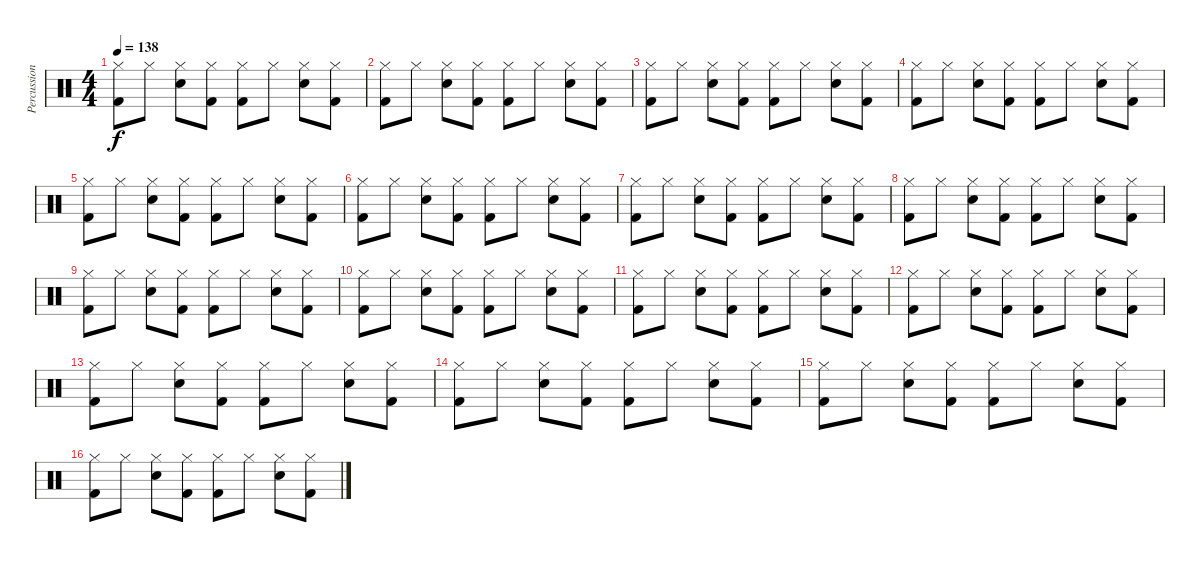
\track ("Percussion" "Percussion") {instrument percussion}
\staff {score}
\articulation defaults
\ts (4 4)
\tempo 138
\clef neutral
\ks c
("Hi-Hat (closed)" "Kick (hit) 2").8{dy f} "Hi-Hat (closed)".8 ("Hi-Hat (closed)" "Electric Snare (hit)").8 ("Hi-Hat (closed)" "Kick (hit) 2").8 ("Hi-Hat (closed)" "Kick (hit) 2").8 "Hi-Hat (closed)".8 ("Hi-Hat (closed)" "Electric Snare (hit)").8 ("Hi-Hat (closed)" "Kick (hit) 2").8 |
("Hi-Hat (closed)" "Kick (hit) 2").8 "Hi-Hat (closed)".8 ("Hi-Hat (closed)" "Electric Snare (hit)").8 ("Hi-Hat (closed)" "Kick (hit) 2").8 ("Hi-Hat (closed)" "Kick (hit) 2").8 "Hi-Hat (closed)".8 ("Hi-Hat (closed)" "Electric Snare (hit)").8 ("Hi-Hat (closed)" "Kick (hit) 2").8 |
("Hi-Hat (closed)" "Kick (hit) 2").8 "Hi-Hat (closed)".8 ("Hi-Hat (closed)" "Electric Snare (hit)").8 ("Hi-Hat (closed)" "Kick (hit) 2").8 ("Hi-Hat (closed)" "Kick (hit) 2").8 "Hi-Hat (closed)".8 ("Hi-Hat (closed)" "Electric Snare (hit)").8 ("Hi-Hat (closed)" "Kick (hit) 2").8 |
("Hi-Hat (closed)" "Kick (hit) 2").8 "Hi-Hat (closed)".8 ("Hi-Hat (closed)" "Electric Snare (hit)").8 ("Hi-Hat (closed)" "Kick (hit) 2").8 ("Hi-Hat (closed)" "Kick (hit) 2").8 "Hi-Hat (closed)".8 ("Hi-Hat (closed)" "Electric Snare (hit)").8 ("Hi-Hat (closed)" "Kick (hit) 2").8 |
("Hi-Hat (closed)" "Kick (hit) 2").8 "Hi-Hat (closed)".8 ("Hi-Hat (closed)" "Electric Snare (hit)").8 ("Hi-Hat (closed)" "Kick (hit) 2").8 ("Hi-Hat (closed)" "Kick (hit) 2").8 "Hi-Hat (closed)".8 ("Hi-Hat (closed)" "Electric Snare (hit)").8 ("Hi-Hat (closed)" "Kick (hit) 2").8 |
("Hi-Hat (closed)" "Kick (hit) 2").8 "Hi-Hat (closed)".8 ("Hi-Hat (closed)" "Electric Snare (hit)").8 ("Hi-Hat (closed)" "Kick (hit) 2").8 ("Hi-Hat (closed)" "Kick (hit) 2").8 "Hi-Hat (closed)".8 ("Hi-Hat (closed)" "Electric Snare (hit)").8 ("Hi-Hat (closed)" "Kick (hit) 2").8 |
("Hi-Hat (closed)" "Kick (hit) 2").8 "Hi-Hat (closed)".8 ("Hi-Hat (closed)" "Electric Snare (hit)").8 ("Hi-Hat (closed)" "Kick (hit) 2").8 ("Hi-Hat (closed)" "Kick (hit) 2").8 "Hi-Hat (closed)".8 ("Hi-Hat (closed)" "Electric Snare (hit)").8 ("Hi-Hat (closed)" "Kick (hit) 2").8 |
("Hi-Hat (closed)" "Kick (hit) 2").8 "Hi-Hat (closed)".8 ("Hi-Hat (closed)" "Electric Snare (hit)").8 ("Hi-Hat (closed)" "Kick (hit) 2").8 ("Hi-Hat (closed)" "Kick (hit) 2").8 "Hi-Hat (closed)".8 ("Hi-Hat (closed)" "Electric Snare (hit)").8 ("Hi-Hat (closed)" "Kick (hit) 2").8 |
("Hi-Hat (closed)" "Kick (hit) 2").8 "Hi-Hat (closed)".8 ("Hi-Hat (closed)" "Electric Snare (hit)").8 ("Hi-Hat (closed)" "Kick (hit) 2").8 ("Hi-Hat (closed)" "Kick (hit) 2").8 "Hi-Hat (closed)".8 ("Hi-Hat (closed)" "Electric Snare (hit)").8 ("Hi-Hat (closed)" "Kick (hit) 2").8 |
("Hi-Hat (closed)" "Kick (hit) 2").8 "Hi-Hat (closed)".8 ("Hi-Hat (closed)" "Electric Snare (hit)").8 ("Hi-Hat (closed)" "Kick (hit) 2").8 ("Hi-Hat (closed)" "Kick (hit) 2").8 "Hi-Hat (closed)".8 ("Hi-Hat (closed)" "Electric Snare (hit)").8 ("Hi-Hat (closed)" "Kick (hit) 2").8 |
("Hi-Hat (closed)" "Kick (hit) 2").8 "Hi-Hat (closed)".8 ("Hi-Hat (closed)" "Electric Snare (hit)").8 ("Hi-Hat (closed)" "Kick (hit) 2").8 ("Hi-Hat (closed)" "Kick (hit) 2").8 "Hi-Hat (closed)".8 ("Hi-Hat (closed)" "Electric Snare (hit)").8 ("Hi-Hat (closed)" "Kick (hit) 2").8 |
("Hi-Hat (closed)" "Kick (hit) 2").8 "Hi-Hat (closed)".8 ("Hi-Hat (closed)" "Electric Snare (hit)").8 ("Hi-Hat (closed)" "Kick (hit) 2").8 ("Hi-Hat (closed)" "Kick (hit) 2").8 "Hi-Hat (closed)".8 ("Hi-Hat (closed)" "Electric Snare (hit)").8 ("Hi-Hat (closed)" "Kick (hit) 2").8 |
("Hi-Hat (closed)" "Kick (hit) 2").8 "Hi-Hat (closed)".8 ("Hi-Hat (closed)" "Electric Snare (hit)").8 ("Hi-Hat (closed)" "Kick (hit) 2").8 ("Hi-Hat (closed)" "Kick (hit) 2").8 "Hi-Hat (closed)".8 ("Hi-Hat (closed)" "Electric Snare (hit)").8 ("Hi-Hat (closed)" "Kick (hit) 2").8 |
("Hi-Hat (closed)" "Kick (hit) 2").8 "Hi-Hat (closed)".8 ("Hi-Hat (closed)" "Electric Snare (hit)").8 ("Hi-Hat (closed)" "Kick (hit) 2").8 ("Hi-Hat (closed)" "Kick (hit) 2").8 "Hi-Hat (closed)".8 ("Hi-Hat (closed)" "Electric Snare (hit)").8 ("Hi-Hat (closed)" "Kick (hit) 2").8 |
("Hi-Hat (closed)" "Kick (hit) 2").8 "Hi-Hat (closed)".8 ("Hi-Hat (closed)" "Electric Snare (hit)").8 ("Hi-Hat (closed)" "Kick (hit) 2").8 ("Hi-Hat (closed)" "Kick (hit) 2").8 "Hi-Hat (closed)".8 ("Hi-Hat (closed)" "Electric Snare (hit)").8 ("Hi-Hat (closed)" "Kick (hit) 2").8 |
("Hi-Hat (closed)" "Kick (hit) 2").8 "Hi-Hat (closed)".8 ("Hi-Hat (closed)" "Electric Snare (hit)").8 ("Hi-Hat (closed)" "Kick (hit) 2").8 ("Hi-Hat (closed)" "Kick (hit) 2").8 "Hi-Hat (closed)".8 ("Hi-Hat (closed)" "Electric Snare (hit)").8 ("Hi-Hat (closed)" "Kick (hit) 2").8
